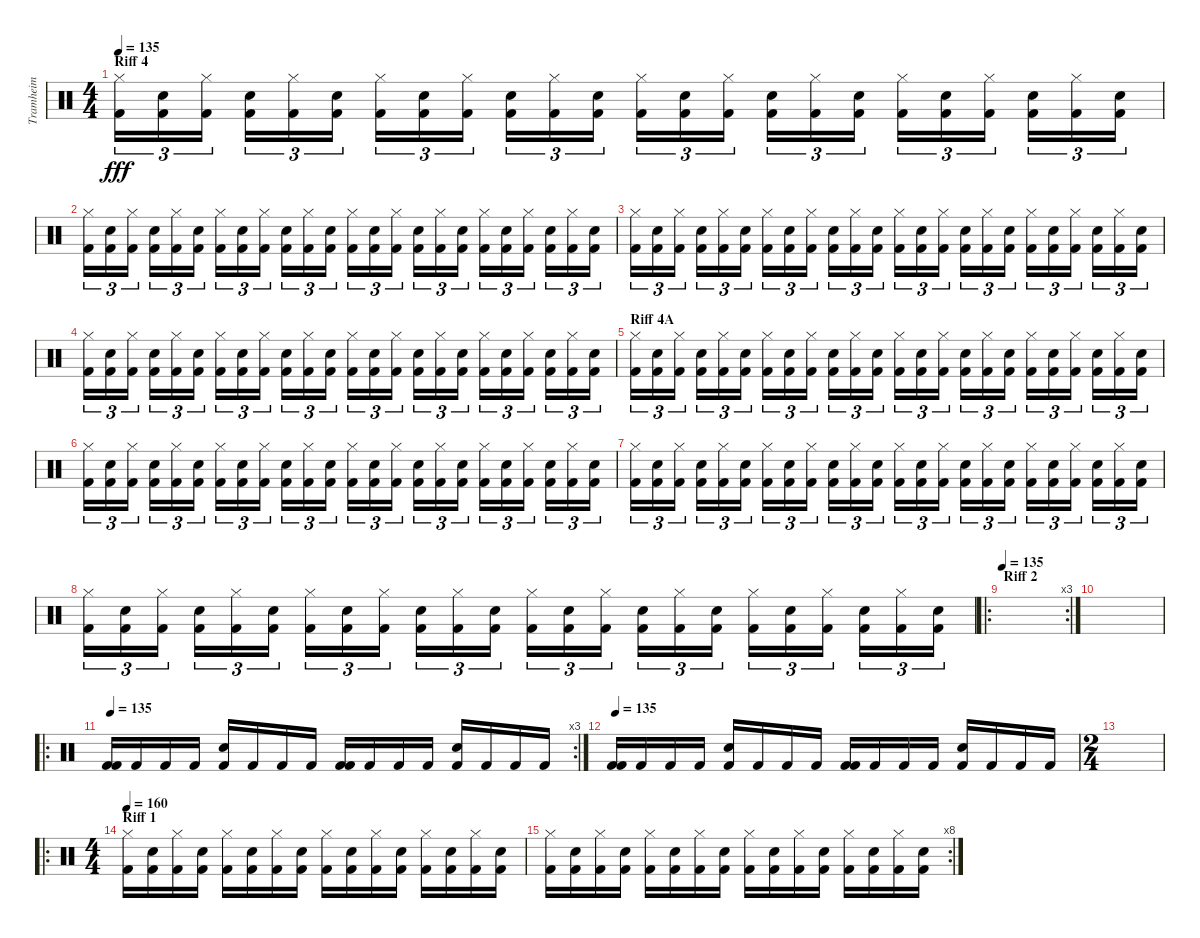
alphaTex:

\track ("Tramheim" "Tramheim") {instrument percussion}
\staff {score}
\articulation defaults
\ts (4 4)
\section ("" "Riff 4")
\tempo 135
\clef neutral
\ks c
("Hi-Hat (closed)" "Kick (hit) 2").16{tu (3 2) dy fff} ("Snare (hit) 2" "Kick (hit) 2").16{tu (3 2)} ("Hi-Hat (closed)" "Kick (hit) 2").16{tu (3 2)} ("Snare (hit) 2" "Kick (hit) 2").16{tu (3 2)} ("Hi-Hat (closed)" "Kick (hit) 2").16{tu (3 2)} ("Snare (hit) 2" "Kick (hit) 2").16{tu (3 2)} ("Hi-Hat (closed)" "Kick (hit) 2").16{tu (3 2)} ("Snare (hit) 2" "Kick (hit) 2").16{tu (3 2)} ("Hi-Hat (closed)" "Kick (hit) 2").16{tu (3 2)} ("Snare (hit) 2" "Kick (hit) 2").16{tu (3 2)} ("Hi-Hat (closed)" "Kick (hit) 2").16{tu (3 2)} ("Snare (hit) 2" "Kick (hit) 2").16{tu (3 2)} ("Hi-Hat (closed)" "Kick (hit) 2").16{tu (3 2)} ("Snare (hit) 2" "Kick (hit) 2").16{tu (3 2)} ("Hi-Hat (closed)" "Kick (hit) 2").16{tu (3 2)} ("Snare (hit) 2" "Kick (hit) 2").16{tu (3 2)} ("Hi-Hat (closed)" "Kick (hit) 2").16{tu (3 2)} ("Snare (hit) 2" "Kick (hit) 2").16{tu (3 2)} ("Hi-Hat (closed)" "Kick (hit) 2").16{tu (3 2)} ("Snare (hit) 2" "Kick (hit) 2").16{tu (3 2)} ("Hi-Hat (closed)" "Kick (hit) 2").16{tu (3 2)} ("Snare (hit) 2" "Kick (hit) 2").16{tu (3 2)} ("Hi-Hat (closed)" "Kick (hit) 2").16{tu (3 2)} ("Snare (hit) 2" "Kick (hit) 2").16{tu (3 2)} |
("Hi-Hat (closed)" "Kick (hit) 2").16{tu (3 2)} ("Snare (hit) 2" "Kick (hit) 2").16{tu (3 2)} ("Hi-Hat (closed)" "Kick (hit) 2").16{tu (3 2)} ("Snare (hit) 2" "Kick (hit) 2").16{tu (3 2)} ("Hi-Hat (closed)" "Kick (hit) 2").16{tu (3 2)} ("Snare (hit) 2" "Kick (hit) 2").16{tu (3 2)} ("Hi-Hat (closed)" "Kick (hit) 2").16{tu (3 2)} ("Snare (hit) 2" "Kick (hit) 2").16{tu (3 2)} ("Hi-Hat (closed)" "Kick (hit) 2").16{tu (3 2)} ("Snare (hit) 2" "Kick (hit) 2").16{tu (3 2)} ("Hi-Hat (closed)" "Kick (hit) 2").16{tu (3 2)} ("Snare (hit) 2" "Kick (hit) 2").16{tu (3 2)} ("Hi-Hat (closed)" "Kick (hit) 2").16{tu (3 2)} ("Snare (hit) 2" "Kick (hit) 2").16{tu (3 2)} ("Hi-Hat (closed)" "Kick (hit) 2").16{tu (3 2)} ("Snare (hit) 2" "Kick (hit) 2").16{tu (3 2)} ("Hi-Hat (closed)" "Kick (hit) 2").16{tu (3 2)} ("Snare (hit) 2" "Kick (hit) 2").16{tu (3 2)} ("Hi-Hat (closed)" "Kick (hit) 2").16{tu (3 2)} ("Snare (hit) 2" "Kick (hit) 2").16{tu (3 2)} ("Hi-Hat (closed)" "Kick (hit) 2").16{tu (3 2)} ("Snare (hit) 2" "Kick (hit) 2").16{tu (3 2)} ("Hi-Hat (closed)" "Kick (hit) 2").16{tu (3 2)} ("Snare (hit) 2" "Kick (hit) 2").16{tu (3 2)} |
("Hi-Hat (closed)" "Kick (hit) 2").16{tu (3 2)} ("Snare (hit) 2" "Kick (hit) 2").16{tu (3 2)} ("Hi-Hat (closed)" "Kick (hit) 2").16{tu (3 2)} ("Snare (hit) 2" "Kick (hit) 2").16{tu (3 2)} ("Hi-Hat (closed)" "Kick (hit) 2").16{tu (3 2)} ("Snare (hit) 2" "Kick (hit) 2").16{tu (3 2)} ("Hi-Hat (closed)" "Kick (hit) 2").16{tu (3 2)} ("Snare (hit) 2" "Kick (hit) 2").16{tu (3 2)} ("Hi-Hat (closed)" "Kick (hit) 2").16{tu (3 2)} ("Snare (hit) 2" "Kick (hit) 2").16{tu (3 2)} ("Hi-Hat (closed)" "Kick (hit) 2").16{tu (3 2)} ("Snare (hit) 2" "Kick (hit) 2").16{tu (3 2)} ("Hi-Hat (closed)" "Kick (hit) 2").16{tu (3 2)} ("Snare (hit) 2" "Kick (hit) 2").16{tu (3 2)} ("Hi-Hat (closed)" "Kick (hit) 2").16{tu (3 2)} ("Snare (hit) 2" "Kick (hit) 2").16{tu (3 2)} ("Hi-Hat (closed)" "Kick (hit) 2").16{tu (3 2)} ("Snare (hit) 2" "Kick (hit) 2").16{tu (3 2)} ("Hi-Hat (closed)" "Kick (hit) 2").16{tu (3 2)} ("Snare (hit) 2" "Kick (hit) 2").16{tu (3 2)} ("Hi-Hat (closed)" "Kick (hit) 2").16{tu (3 2)} ("Snare (hit) 2" "Kick (hit) 2").16{tu (3 2)} ("Hi-Hat (closed)" "Kick (hit) 2").16{tu (3 2)} ("Snare (hit) 2" "Kick (hit) 2").16{tu (3 2)} |
("Hi-Hat (closed)" "Kick (hit) 2").16{tu (3 2)} ("Snare (hit) 2" "Kick (hit) 2").16{tu (3 2)} ("Hi-Hat (closed)" "Kick (hit) 2").16{tu (3 2)} ("Snare (hit) 2" "Kick (hit) 2").16{tu (3 2)} ("Hi-Hat (closed)" "Kick (hit) 2").16{tu (3 2)} ("Snare (hit) 2" "Kick (hit) 2").16{tu (3 2)} ("Hi-Hat (closed)" "Kick (hit) 2").16{tu (3 2)} ("Snare (hit) 2" "Kick (hit) 2").16{tu (3 2)} ("Hi-Hat (closed)" "Kick (hit) 2").16{tu (3 2)} ("Snare (hit) 2" "Kick (hit) 2").16{tu (3 2)} ("Hi-Hat (closed)" "Kick (hit) 2").16{tu (3 2)} ("Snare (hit) 2" "Kick (hit) 2").16{tu (3 2)} ("Hi-Hat (closed)" "Kick (hit) 2").16{tu (3 2)} ("Snare (hit) 2" "Kick (hit) 2").16{tu (3 2)} ("Hi-Hat (closed)" "Kick (hit) 2").16{tu (3 2)} ("Snare (hit) 2" "Kick (hit) 2").16{tu (3 2)} ("Hi-Hat (closed)" "Kick (hit) 2").16{tu (3 2)} ("Snare (hit) 2" "Kick (hit) 2").16{tu (3 2)} ("Hi-Hat (closed)" "Kick (hit) 2").16{tu (3 2)} ("Snare (hit) 2" "Kick (hit) 2").16{tu (3 2)} ("Hi-Hat (closed)" "Kick (hit) 2").16{tu (3 2)} ("Snare (hit) 2" "Kick (hit) 2").16{tu (3 2)} ("Hi-Hat (closed)" "Kick (hit) 2").16{tu (3 2)} ("Snare (hit) 2" "Kick (hit) 2").16{tu (3 2)} |
\section ("" "Riff 4A")
("Hi-Hat (closed)" "Kick (hit) 2").16{tu (3 2)} ("Snare (hit) 2" "Kick (hit) 2").16{tu (3 2)} ("Hi-Hat (closed)" "Kick (hit) 2").16{tu (3 2)} ("Snare (hit) 2" "Kick (hit) 2").16{tu (3 2)} ("Hi-Hat (closed)" "Kick (hit) 2").16{tu (3 2)} ("Snare (hit) 2" "Kick (hit) 2").16{tu (3 2)} ("Hi-Hat (closed)" "Kick (hit) 2").16{tu (3 2)} ("Snare (hit) 2" "Kick (hit) 2").16{tu (3 2)} ("Hi-Hat (closed)" "Kick (hit) 2").16{tu (3 2)} ("Snare (hit) 2" "Kick (hit) 2").16{tu (3 2)} ("Hi-Hat (closed)" "Kick (hit) 2").16{tu (3 2)} ("Snare (hit) 2" "Kick (hit) 2").16{tu (3 2)} ("Hi-Hat (closed)" "Kick (hit) 2").16{tu (3 2)} ("Snare (hit) 2" "Kick (hit) 2").16{tu (3 2)} ("Hi-Hat (closed)" "Kick (hit) 2").16{tu (3 2)} ("Snare (hit) 2" "Kick (hit) 2").16{tu (3 2)} ("Hi-Hat (closed)" "Kick (hit) 2").16{tu (3 2)} ("Snare (hit) 2" "Kick (hit) 2").16{tu (3 2)} ("Hi-Hat (closed)" "Kick (hit) 2").16{tu (3 2)} ("Snare (hit) 2" "Kick (hit) 2").16{tu (3 2)} ("Hi-Hat (closed)" "Kick (hit) 2").16{tu (3 2)} ("Snare (hit) 2" "Kick (hit) 2").16{tu (3 2)} ("Hi-Hat (closed)" "Kick (hit) 2").16{tu (3 2)} ("Snare (hit) 2" "Kick (hit) 2").16{tu (3 2)} |
("Hi-Hat (closed)" "Kick (hit) 2").16{tu (3 2)} ("Snare (hit) 2" "Kick (hit) 2").16{tu (3 2)} ("Hi-Hat (closed)" "Kick (hit) 2").16{tu (3 2)} ("Snare (hit) 2" "Kick (hit) 2").16{tu (3 2)} ("Hi-Hat (closed)" "Kick (hit) 2").16{tu (3 2)} ("Snare (hit) 2" "Kick (hit) 2").16{tu (3 2)} ("Hi-Hat (closed)" "Kick (hit) 2").16{tu (3 2)} ("Snare (hit) 2" "Kick (hit) 2").16{tu (3 2)} ("Hi-Hat (closed)" "Kick (hit) 2").16{tu (3 2)} ("Snare (hit) 2" "Kick (hit) 2").16{tu (3 2)} ("Hi-Hat (closed)" "Kick (hit) 2").16{tu (3 2)} ("Snare (hit) 2" "Kick (hit) 2").16{tu (3 2)} ("Hi-Hat (closed)" "Kick (hit) 2").16{tu (3 2)} ("Snare (hit) 2" "Kick (hit) 2").16{tu (3 2)} ("Hi-Hat (closed)" "Kick (hit) 2").16{tu (3 2)} ("Snare (hit) 2" "Kick (hit) 2").16{tu (3 2)} ("Hi-Hat (closed)" "Kick (hit) 2").16{tu (3 2)} ("Snare (hit) 2" "Kick (hit) 2").16{tu (3 2)} ("Hi-Hat (closed)" "Kick (hit) 2").16{tu (3 2)} ("Snare (hit) 2" "Kick (hit) 2").16{tu (3 2)} ("Hi-Hat (closed)" "Kick (hit) 2").16{tu (3 2)} ("Snare (hit) 2" "Kick (hit) 2").16{tu (3 2)} ("Hi-Hat (closed)" "Kick (hit) 2").16{tu (3 2)} ("Snare (hit) 2" "Kick (hit) 2").16{tu (3 2)} |
("Hi-Hat (closed)" "Kick (hit) 2").16{tu (3 2)} ("Snare (hit) 2" "Kick (hit) 2").16{tu (3 2)} ("Hi-Hat (closed)" "Kick (hit) 2").16{tu (3 2)} ("Snare (hit) 2" "Kick (hit) 2").16{tu (3 2)} ("Hi-Hat (closed)" "Kick (hit) 2").16{tu (3 2)} ("Snare (hit) 2" "Kick (hit) 2").16{tu (3 2)} ("Hi-Hat (closed)" "Kick (hit) 2").16{tu (3 2)} ("Snare (hit) 2" "Kick (hit) 2").16{tu (3 2)} ("Hi-Hat (closed)" "Kick (hit) 2").16{tu (3 2)} ("Snare (hit) 2" "Kick (hit) 2").16{tu (3 2)} ("Hi-Hat (closed)" "Kick (hit) 2").16{tu (3 2)} ("Snare (hit) 2" "Kick (hit) 2").16{tu (3 2)} ("Hi-Hat (closed)" "Kick (hit) 2").16{tu (3 2)} ("Snare (hit) 2" "Kick (hit) 2").16{tu (3 2)} ("Hi-Hat (closed)" "Kick (hit) 2").16{tu (3 2)} ("Snare (hit) 2" "Kick (hit) 2").16{tu (3 2)} ("Hi-Hat (closed)" "Kick (hit) 2").16{tu (3 2)} ("Snare (hit) 2" "Kick (hit) 2").16{tu (3 2)} ("Hi-Hat (closed)" "Kick (hit) 2").16{tu (3 2)} ("Snare (hit) 2" "Kick (hit) 2").16{tu (3 2)} ("Hi-Hat (closed)" "Kick (hit) 2").16{tu (3 2)} ("Snare (hit) 2" "Kick (hit) 2").16{tu (3 2)} ("Hi-Hat (closed)" "Kick (hit) 2").16{tu (3 2)} ("Snare (hit) 2" "Kick (hit) 2").16{tu (3 2)} |
("Hi-Hat (closed)" "Kick (hit) 2").16{tu (3 2)} ("Snare (hit) 2" "Kick (hit) 2").16{tu (3 2)} ("Hi-Hat (closed)" "Kick (hit) 2").16{tu (3 2)} ("Snare (hit) 2" "Kick (hit) 2").16{tu (3 2)} ("Hi-Hat (closed)" "Kick (hit) 2").16{tu (3 2)} ("Snare (hit) 2" "Kick (hit) 2").16{tu (3 2)} ("Hi-Hat (closed)" "Kick (hit) 2").16{tu (3 2)} ("Snare (hit) 2" "Kick (hit) 2").16{tu (3 2)} ("Hi-Hat (closed)" "Kick (hit) 2").16{tu (3 2)} ("Snare (hit) 2" "Kick (hit) 2").16{tu (3 2)} ("Hi-Hat (closed)" "Kick (hit) 2").16{tu (3 2)} ("Snare (hit) 2" "Kick (hit) 2").16{tu (3 2)} ("Hi-Hat (closed)" "Kick (hit) 2").16{tu (3 2)} ("Snare (hit) 2" "Kick (hit) 2").16{tu (3 2)} ("Hi-Hat (closed)" "Kick (hit) 2").16{tu (3 2)} ("Snare (hit) 2" "Kick (hit) 2").16{tu (3 2)} ("Hi-Hat (closed)" "Kick (hit) 2").16{tu (3 2)} ("Snare (hit) 2" "Kick (hit) 2").16{tu (3 2)} ("Hi-Hat (closed)" "Kick (hit) 2").16{tu (3 2)} ("Snare (hit) 2" "Kick (hit) 2").16{tu (3 2)} ("Hi-Hat (closed)" "Kick (hit) 2").16{tu (3 2)} ("Snare (hit) 2" "Kick (hit) 2").16{tu (3 2)} ("Hi-Hat (closed)" "Kick (hit) 2").16{tu (3 2)} ("Snare (hit) 2" "Kick (hit) 2").16{tu (3 2)} |
\ro
\rc 3
\section ("" "Riff 2")
\tempo 135
|
|
\ro
\rc 3
\tempo 135
("Kick (hit) 2" "Kick (hit) 2").16 "Kick (hit) 2".16 "Kick (hit) 2".16 "Kick (hit) 2".16 ("Electric Snare (hit)" "Kick (hit) 2").16 "Kick (hit) 2".16 "Kick (hit) 2".16 "Kick (hit) 2".16 ("Kick (hit) 2" "Kick (hit) 2").16 "Kick (hit) 2".16 "Kick (hit) 2".16 "Kick (hit) 2".16 ("Electric Snare (hit)" "Kick (hit) 2").16 "Kick (hit) 2".16 "Kick (hit) 2".16 "Kick (hit) 2".16 |
\tempo 135
("Kick (hit) 2" "Kick (hit) 2").16 "Kick (hit) 2".16 "Kick (hit) 2".16 "Kick (hit) 2".16 ("Electric Snare (hit)" "Kick (hit) 2").16 "Kick (hit) 2".16 "Kick (hit) 2".16 "Kick (hit) 2".16 ("Kick (hit) 2" "Kick (hit) 2").16 "Kick (hit) 2".16 "Kick (hit) 2".16 "Kick (hit) 2".16 ("Electric Snare (hit)" "Kick (hit) 2").16 "Kick (hit) 2".16 "Kick (hit) 2".16 "Kick (hit) 2".16 |
\ts (2 4)
|
\ro
\ts (4 4)
\section ("" "Riff 1")
\tempo 160
("Hi-Hat (closed)" "Kick (hit) 2").16 ("Snare (hit) 2" "Kick (hit) 2").16 ("Hi-Hat (closed)" "Kick (hit) 2").16 ("Snare (hit) 2" "Kick (hit) 2").16 ("Hi-Hat (closed)" "Kick (hit) 2").16 ("Snare (hit) 2" "Kick (hit) 2").16 ("Hi-Hat (closed)" "Kick (hit) 2").16 ("Snare (hit) 2" "Kick (hit) 2").16 ("Hi-Hat (closed)" "Kick (hit) 2").16 ("Snare (hit) 2" "Kick (hit) 2").16 ("Hi-Hat (closed)" "Kick (hit) 2").16 ("Snare (hit) 2" "Kick (hit) 2").16 ("Hi-Hat (closed)" "Kick (hit) 2").16 ("Snare (hit) 2" "Kick (hit) 2").16 ("Hi-Hat (closed)" "Kick (hit) 2").16 ("Snare (hit) 2" "Kick (hit) 2").16 |
\rc 8
("Hi-Hat (closed)" "Kick (hit) 2").16 ("Snare (hit) 2" "Kick (hit) 2").16 ("Hi-Hat (closed)" "Kick (hit) 2").16 ("Snare (hit) 2" "Kick (hit) 2").16 ("Hi-Hat (closed)" "Kick (hit) 2").16 ("Snare (hit) 2" "Kick (hit) 2").16 ("Hi-Hat (closed)" "Kick (hit) 2").16 ("Snare (hit) 2" "Kick (hit) 2").16 ("Hi-Hat (closed)" "Kick (hit) 2").16 ("Snare (hit) 2" "Kick (hit) 2").16 ("Hi-Hat (closed)" "Kick (hit) 2").16 ("Snare (hit) 2" "Kick (hit) 2").16 ("Hi-Hat (closed)" "Kick (hit) 2").16 ("Snare (hit) 2" "Kick (hit) 2").16 ("Hi-Hat (closed)" "Kick (hit) 2").16 ("Snare (hit) 2" "Kick (hit) 2").16
